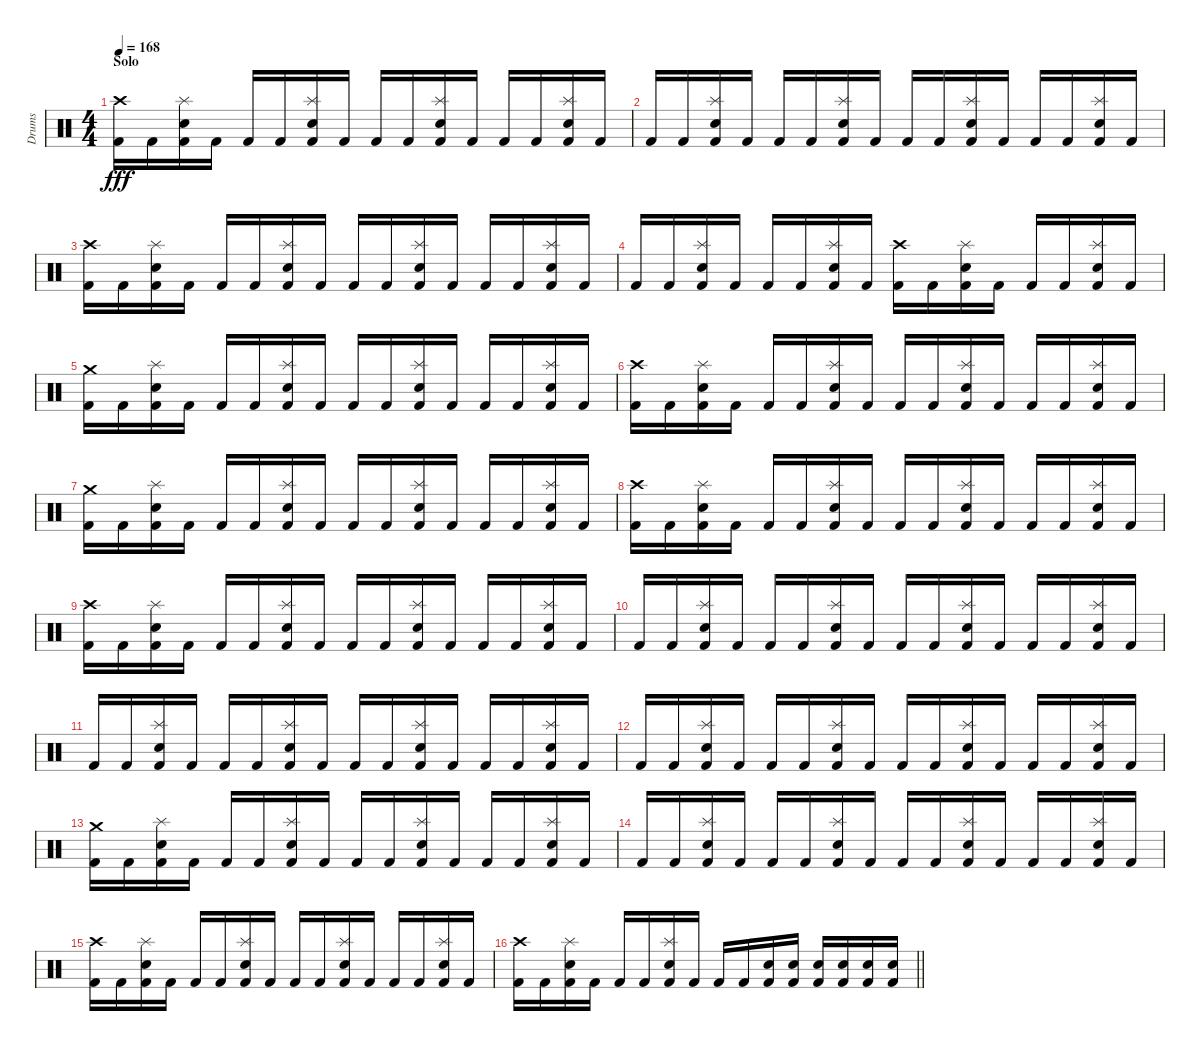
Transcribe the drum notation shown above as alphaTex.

\track ("Drums" "Drums") {instrument percussion}
\staff {score}
\articulation defaults
\ts (4 4)
\section ("" "Solo")
\tempo 168
\clef neutral
\ks aminor
("Crash high (hit)" "Kick (hit) 2").16{dy fff} "Kick (hit) 2".16 ("Splash (hit)" "Snare (hit) 2" "Kick (hit) 2").16 "Kick (hit) 2".16 "Kick (hit) 2".16 "Kick (hit) 2".16 ("Splash (hit)" "Snare (hit) 2" "Kick (hit) 2").16 "Kick (hit) 2".16 "Kick (hit) 2".16 "Kick (hit) 2".16 ("Splash (hit)" "Snare (hit) 2" "Kick (hit) 2").16 "Kick (hit) 2".16 "Kick (hit) 2".16 "Kick (hit) 2".16 ("Splash (hit)" "Snare (hit) 2" "Kick (hit) 2").16 "Kick (hit) 2".16 |
"Kick (hit) 2".16 "Kick (hit) 2".16 ("Splash (hit)" "Snare (hit) 2" "Kick (hit) 2").16 "Kick (hit) 2".16 "Kick (hit) 2".16 "Kick (hit) 2".16 ("Splash (hit)" "Snare (hit) 2" "Kick (hit) 2").16 "Kick (hit) 2".16 "Kick (hit) 2".16 "Kick (hit) 2".16 ("Splash (hit)" "Snare (hit) 2" "Kick (hit) 2").16 "Kick (hit) 2".16 "Kick (hit) 2".16 "Kick (hit) 2".16 ("Splash (hit)" "Snare (hit) 2" "Kick (hit) 2").16 "Kick (hit) 2".16 |
("Crash high (hit)" "Kick (hit) 2").16 "Kick (hit) 2".16 ("Splash (hit)" "Snare (hit) 2" "Kick (hit) 2").16 "Kick (hit) 2".16 "Kick (hit) 2".16 "Kick (hit) 2".16 ("Splash (hit)" "Snare (hit) 2" "Kick (hit) 2").16 "Kick (hit) 2".16 "Kick (hit) 2".16 "Kick (hit) 2".16 ("Splash (hit)" "Snare (hit) 2" "Kick (hit) 2").16 "Kick (hit) 2".16 "Kick (hit) 2".16 "Kick (hit) 2".16 ("Splash (hit)" "Snare (hit) 2" "Kick (hit) 2").16 "Kick (hit) 2".16 |
"Kick (hit) 2".16 "Kick (hit) 2".16 ("Splash (hit)" "Snare (hit) 2" "Kick (hit) 2").16 "Kick (hit) 2".16 "Kick (hit) 2".16 "Kick (hit) 2".16 ("Splash (hit)" "Snare (hit) 2" "Kick (hit) 2").16 "Kick (hit) 2".16 ("Crash high (hit)" "Kick (hit) 2").16 "Kick (hit) 2".16 ("Splash (hit)" "Snare (hit) 2" "Kick (hit) 2").16 "Kick (hit) 2".16 "Kick (hit) 2".16 "Kick (hit) 2".16 ("Splash (hit)" "Snare (hit) 2" "Kick (hit) 2").16 "Kick (hit) 2".16 |
("Crash medium (hit)" "Kick (hit) 2").16 "Kick (hit) 2".16 ("Splash (hit)" "Snare (hit) 2" "Kick (hit) 2").16 "Kick (hit) 2".16 "Kick (hit) 2".16 "Kick (hit) 2".16 ("Splash (hit)" "Snare (hit) 2" "Kick (hit) 2").16 "Kick (hit) 2".16 "Kick (hit) 2".16 "Kick (hit) 2".16 ("Splash (hit)" "Snare (hit) 2" "Kick (hit) 2").16 "Kick (hit) 2".16 "Kick (hit) 2".16 "Kick (hit) 2".16 ("Splash (hit)" "Snare (hit) 2" "Kick (hit) 2").16 "Kick (hit) 2".16 |
("Crash high (hit)" "Kick (hit) 2").16 "Kick (hit) 2".16 ("Splash (hit)" "Snare (hit) 2" "Kick (hit) 2").16 "Kick (hit) 2".16 "Kick (hit) 2".16 "Kick (hit) 2".16 ("Splash (hit)" "Snare (hit) 2" "Kick (hit) 2").16 "Kick (hit) 2".16 "Kick (hit) 2".16 "Kick (hit) 2".16 ("Splash (hit)" "Snare (hit) 2" "Kick (hit) 2").16 "Kick (hit) 2".16 "Kick (hit) 2".16 "Kick (hit) 2".16 ("Splash (hit)" "Snare (hit) 2" "Kick (hit) 2").16 "Kick (hit) 2".16 |
("Crash medium (hit)" "Kick (hit) 2").16 "Kick (hit) 2".16 ("Splash (hit)" "Snare (hit) 2" "Kick (hit) 2").16 "Kick (hit) 2".16 "Kick (hit) 2".16 "Kick (hit) 2".16 ("Splash (hit)" "Snare (hit) 2" "Kick (hit) 2").16 "Kick (hit) 2".16 "Kick (hit) 2".16 "Kick (hit) 2".16 ("Splash (hit)" "Snare (hit) 2" "Kick (hit) 2").16 "Kick (hit) 2".16 "Kick (hit) 2".16 "Kick (hit) 2".16 ("Splash (hit)" "Snare (hit) 2" "Kick (hit) 2").16 "Kick (hit) 2".16 |
("Crash high (hit)" "Kick (hit) 2").16 "Kick (hit) 2".16 ("Splash (hit)" "Snare (hit) 2" "Kick (hit) 2").16 "Kick (hit) 2".16 "Kick (hit) 2".16 "Kick (hit) 2".16 ("Splash (hit)" "Snare (hit) 2" "Kick (hit) 2").16 "Kick (hit) 2".16 "Kick (hit) 2".16 "Kick (hit) 2".16 ("Splash (hit)" "Snare (hit) 2" "Kick (hit) 2").16 "Kick (hit) 2".16 "Kick (hit) 2".16 "Kick (hit) 2".16 ("Splash (hit)" "Snare (hit) 2" "Kick (hit) 2").16 "Kick (hit) 2".16 |
("Crash high (hit)" "Kick (hit) 2").16 "Kick (hit) 2".16 ("Splash (hit)" "Snare (hit) 2" "Kick (hit) 2").16 "Kick (hit) 2".16 "Kick (hit) 2".16 "Kick (hit) 2".16 ("Splash (hit)" "Snare (hit) 2" "Kick (hit) 2").16 "Kick (hit) 2".16 "Kick (hit) 2".16 "Kick (hit) 2".16 ("Splash (hit)" "Snare (hit) 2" "Kick (hit) 2").16 "Kick (hit) 2".16 "Kick (hit) 2".16 "Kick (hit) 2".16 ("Splash (hit)" "Snare (hit) 2" "Kick (hit) 2").16 "Kick (hit) 2".16 |
"Kick (hit) 2".16 "Kick (hit) 2".16 ("Splash (hit)" "Snare (hit) 2" "Kick (hit) 2").16 "Kick (hit) 2".16 "Kick (hit) 2".16 "Kick (hit) 2".16 ("Splash (hit)" "Snare (hit) 2" "Kick (hit) 2").16 "Kick (hit) 2".16 "Kick (hit) 2".16 "Kick (hit) 2".16 ("Splash (hit)" "Snare (hit) 2" "Kick (hit) 2").16 "Kick (hit) 2".16 "Kick (hit) 2".16 "Kick (hit) 2".16 ("Splash (hit)" "Snare (hit) 2" "Kick (hit) 2").16 "Kick (hit) 2".16 |
"Kick (hit) 2".16 "Kick (hit) 2".16 ("Splash (hit)" "Snare (hit) 2" "Kick (hit) 2").16 "Kick (hit) 2".16 "Kick (hit) 2".16 "Kick (hit) 2".16 ("Splash (hit)" "Snare (hit) 2" "Kick (hit) 2").16 "Kick (hit) 2".16 "Kick (hit) 2".16 "Kick (hit) 2".16 ("Splash (hit)" "Snare (hit) 2" "Kick (hit) 2").16 "Kick (hit) 2".16 "Kick (hit) 2".16 "Kick (hit) 2".16 ("Splash (hit)" "Snare (hit) 2" "Kick (hit) 2").16 "Kick (hit) 2".16 |
"Kick (hit) 2".16 "Kick (hit) 2".16 ("Splash (hit)" "Snare (hit) 2" "Kick (hit) 2").16 "Kick (hit) 2".16 "Kick (hit) 2".16 "Kick (hit) 2".16 ("Splash (hit)" "Snare (hit) 2" "Kick (hit) 2").16 "Kick (hit) 2".16 "Kick (hit) 2".16 "Kick (hit) 2".16 ("Splash (hit)" "Snare (hit) 2" "Kick (hit) 2").16 "Kick (hit) 2".16 "Kick (hit) 2".16 "Kick (hit) 2".16 ("Splash (hit)" "Snare (hit) 2" "Kick (hit) 2").16 "Kick (hit) 2".16 |
("Crash medium (hit)" "Kick (hit) 2").16 "Kick (hit) 2".16 ("Splash (hit)" "Snare (hit) 2" "Kick (hit) 2").16 "Kick (hit) 2".16 "Kick (hit) 2".16 "Kick (hit) 2".16 ("Splash (hit)" "Snare (hit) 2" "Kick (hit) 2").16 "Kick (hit) 2".16 "Kick (hit) 2".16 "Kick (hit) 2".16 ("Splash (hit)" "Snare (hit) 2" "Kick (hit) 2").16 "Kick (hit) 2".16 "Kick (hit) 2".16 "Kick (hit) 2".16 ("Splash (hit)" "Snare (hit) 2" "Kick (hit) 2").16 "Kick (hit) 2".16 |
"Kick (hit) 2".16 "Kick (hit) 2".16 ("Splash (hit)" "Snare (hit) 2" "Kick (hit) 2").16 "Kick (hit) 2".16 "Kick (hit) 2".16 "Kick (hit) 2".16 ("Splash (hit)" "Snare (hit) 2" "Kick (hit) 2").16 "Kick (hit) 2".16 "Kick (hit) 2".16 "Kick (hit) 2".16 ("Splash (hit)" "Snare (hit) 2" "Kick (hit) 2").16 "Kick (hit) 2".16 "Kick (hit) 2".16 "Kick (hit) 2".16 ("Splash (hit)" "Snare (hit) 2" "Kick (hit) 2").16 "Kick (hit) 2".16 |
("Crash high (hit)" "Kick (hit) 2").16 "Kick (hit) 2".16 ("Splash (hit)" "Snare (hit) 2" "Kick (hit) 2").16 "Kick (hit) 2".16 "Kick (hit) 2".16 "Kick (hit) 2".16 ("Splash (hit)" "Snare (hit) 2" "Kick (hit) 2").16 "Kick (hit) 2".16 "Kick (hit) 2".16 "Kick (hit) 2".16 ("Splash (hit)" "Snare (hit) 2" "Kick (hit) 2").16 "Kick (hit) 2".16 "Kick (hit) 2".16 "Kick (hit) 2".16 ("Splash (hit)" "Snare (hit) 2" "Kick (hit) 2").16 "Kick (hit) 2".16 |
\barLineRight lightlight
("Crash high (hit)" "Kick (hit) 2").16 "Kick (hit) 2".16 ("Splash (hit)" "Snare (hit) 2" "Kick (hit) 2").16 "Kick (hit) 2".16 "Kick (hit) 2".16 "Kick (hit) 2".16 ("Splash (hit)" "Snare (hit) 2" "Kick (hit) 2").16 "Kick (hit) 2".16 "Kick (hit) 2".16 "Kick (hit) 2".16 ("Snare (hit) 2" "Kick (hit) 2").16 ("Snare (hit) 2" "Kick (hit) 2").16 ("Snare (hit) 2" "Kick (hit) 2").16 ("Snare (hit) 2" "Kick (hit) 2").16 ("Snare (hit) 2" "Kick (hit) 2").16 ("Snare (hit) 2" "Kick (hit) 2").16
